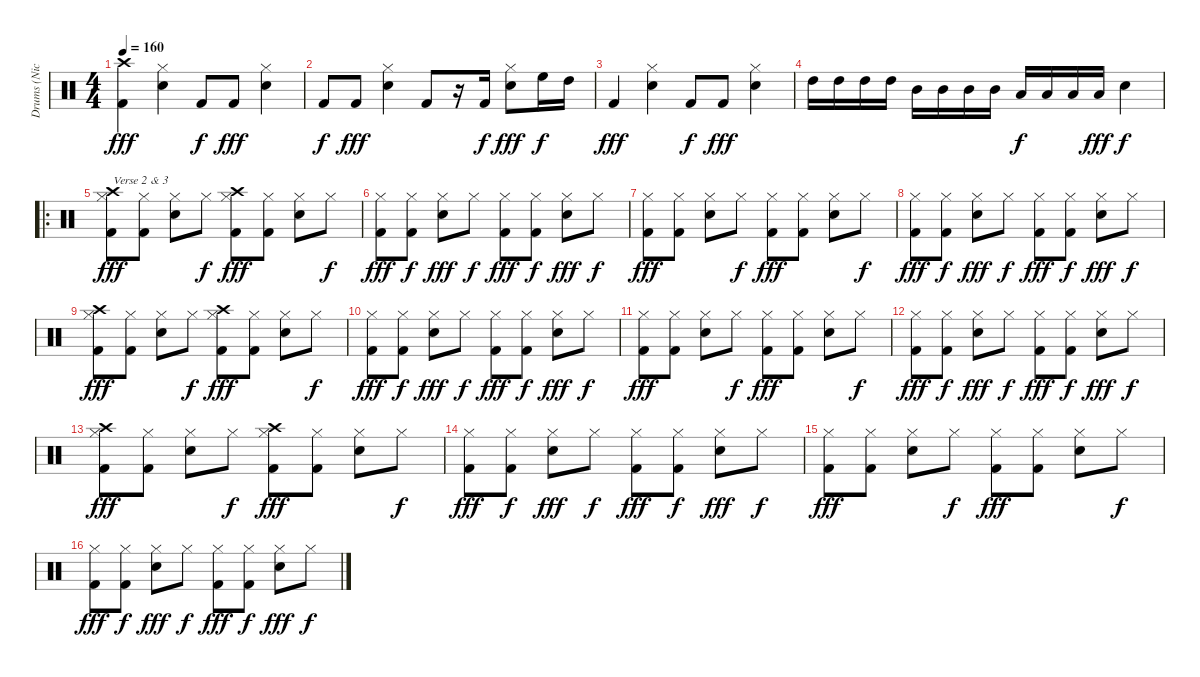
\track ("Drums (Nicko)" "Drums (Nic") {instrument percussion}
\staff {score}
\articulation defaults
\ts (4 4)
\tempo 160
\clef neutral
\ks c
("Kick (hit) 2" "Crash high (hit)").4{dy fff} ("Hi-Hat (closed)" "Snare (hit) 2").4 "Kick (hit) 2".8{dy f} "Kick (hit) 2".8{dy fff} ("Hi-Hat (closed)" "Snare (hit) 2").4 |
"Kick (hit) 2".8{dy f} "Kick (hit) 2".8{dy fff} ("Hi-Hat (closed)" "Snare (hit) 2").4 "Kick (hit) 2".8 r.16 "Kick (hit) 2".16{dy f} ("Hi-Hat (closed)" "Snare (hit) 2").8{dy fff} "High Floor Tom (hit)".16{dy f} "High Tom (hit)".16 |
"Kick (hit) 2".4{dy fff} ("Hi-Hat (closed)" "Snare (hit) 2").4 "Kick (hit) 2".8{dy f} "Kick (hit) 2".8{dy fff} ("Hi-Hat (closed)" "Snare (hit) 2").4 |
"High Tom (hit)".16 "High Tom (hit)".16 "High Tom (hit)".16 "High Tom (hit)".16 "Mid Tom (hit)".16 "Mid Tom (hit)".16 "Mid Tom (hit)".16 "Mid Tom (hit)".16 "Low Tom (hit)".16{dy f} "Low Tom (hit)".16 "Low Tom (hit)".16 "Low Tom (hit)".16{dy fff} "Snare (hit) 2".4{dy f} |
\ro
("Hi-Hat (closed)" "Kick (hit) 2" "Crash high (hit)").8{txt "Verse 2 & 3" dy fff} ("Hi-Hat (closed)" "Kick (hit) 2").8 ("Hi-Hat (closed)" "Snare (hit) 2").8 "Hi-Hat (closed)".8{dy f} ("Hi-Hat (closed)" "Kick (hit) 2" "Crash high (hit)").8{dy fff} ("Hi-Hat (closed)" "Kick (hit) 2").8 ("Hi-Hat (closed)" "Snare (hit) 2").8 "Hi-Hat (closed)".8{dy f} |
("Hi-Hat (closed)" "Kick (hit) 2").8{dy fff} ("Hi-Hat (closed)" "Kick (hit) 2").8{dy f} ("Hi-Hat (closed)" "Snare (hit) 2").8{dy fff} "Hi-Hat (closed)".8{dy f} ("Hi-Hat (closed)" "Kick (hit) 2").8{dy fff} ("Hi-Hat (closed)" "Kick (hit) 2").8{dy f} ("Hi-Hat (closed)" "Snare (hit) 2").8{dy fff} "Hi-Hat (closed)".8{dy f} |
("Hi-Hat (closed)" "Kick (hit) 2").8{dy fff} ("Hi-Hat (closed)" "Kick (hit) 2").8 ("Hi-Hat (closed)" "Snare (hit) 2").8 "Hi-Hat (closed)".8{dy f} ("Hi-Hat (closed)" "Kick (hit) 2").8{dy fff} ("Hi-Hat (closed)" "Kick (hit) 2").8 ("Hi-Hat (closed)" "Snare (hit) 2").8 "Hi-Hat (closed)".8{dy f} |
("Hi-Hat (closed)" "Kick (hit) 2").8{dy fff} ("Hi-Hat (closed)" "Kick (hit) 2").8{dy f} ("Hi-Hat (closed)" "Snare (hit) 2").8{dy fff} "Hi-Hat (closed)".8{dy f} ("Hi-Hat (closed)" "Kick (hit) 2").8{dy fff} ("Hi-Hat (closed)" "Kick (hit) 2").8{dy f} ("Hi-Hat (closed)" "Snare (hit) 2").8{dy fff} "Hi-Hat (closed)".8{dy f} |
("Hi-Hat (closed)" "Kick (hit) 2" "Crash high (hit)").8{dy fff} ("Hi-Hat (closed)" "Kick (hit) 2").8 ("Hi-Hat (closed)" "Snare (hit) 2").8 "Hi-Hat (closed)".8{dy f} ("Hi-Hat (closed)" "Kick (hit) 2" "Crash high (hit)").8{dy fff} ("Hi-Hat (closed)" "Kick (hit) 2").8 ("Hi-Hat (closed)" "Snare (hit) 2").8 "Hi-Hat (closed)".8{dy f} |
("Hi-Hat (closed)" "Kick (hit) 2").8{dy fff} ("Hi-Hat (closed)" "Kick (hit) 2").8{dy f} ("Hi-Hat (closed)" "Snare (hit) 2").8{dy fff} "Hi-Hat (closed)".8{dy f} ("Hi-Hat (closed)" "Kick (hit) 2").8{dy fff} ("Hi-Hat (closed)" "Kick (hit) 2").8{dy f} ("Hi-Hat (closed)" "Snare (hit) 2").8{dy fff} "Hi-Hat (closed)".8{dy f} |
("Hi-Hat (closed)" "Kick (hit) 2").8{dy fff} ("Hi-Hat (closed)" "Kick (hit) 2").8 ("Hi-Hat (closed)" "Snare (hit) 2").8 "Hi-Hat (closed)".8{dy f} ("Hi-Hat (closed)" "Kick (hit) 2").8{dy fff} ("Hi-Hat (closed)" "Kick (hit) 2").8 ("Hi-Hat (closed)" "Snare (hit) 2").8 "Hi-Hat (closed)".8{dy f} |
("Hi-Hat (closed)" "Kick (hit) 2").8{dy fff} ("Hi-Hat (closed)" "Kick (hit) 2").8{dy f} ("Hi-Hat (closed)" "Snare (hit) 2").8{dy fff} "Hi-Hat (closed)".8{dy f} ("Hi-Hat (closed)" "Kick (hit) 2").8{dy fff} ("Hi-Hat (closed)" "Kick (hit) 2").8{dy f} ("Hi-Hat (closed)" "Snare (hit) 2").8{dy fff} "Hi-Hat (closed)".8{dy f} |
("Hi-Hat (closed)" "Kick (hit) 2" "Crash high (hit)").8{dy fff} ("Hi-Hat (closed)" "Kick (hit) 2").8 ("Hi-Hat (closed)" "Snare (hit) 2").8 "Hi-Hat (closed)".8{dy f} ("Hi-Hat (closed)" "Kick (hit) 2" "Crash high (hit)").8{dy fff} ("Hi-Hat (closed)" "Kick (hit) 2").8 ("Hi-Hat (closed)" "Snare (hit) 2").8 "Hi-Hat (closed)".8{dy f} |
("Hi-Hat (closed)" "Kick (hit) 2").8{dy fff} ("Hi-Hat (closed)" "Kick (hit) 2").8{dy f} ("Hi-Hat (closed)" "Snare (hit) 2").8{dy fff} "Hi-Hat (closed)".8{dy f} ("Hi-Hat (closed)" "Kick (hit) 2").8{dy fff} ("Hi-Hat (closed)" "Kick (hit) 2").8{dy f} ("Hi-Hat (closed)" "Snare (hit) 2").8{dy fff} "Hi-Hat (closed)".8{dy f} |
("Hi-Hat (closed)" "Kick (hit) 2").8{dy fff} ("Hi-Hat (closed)" "Kick (hit) 2").8 ("Hi-Hat (closed)" "Snare (hit) 2").8 "Hi-Hat (closed)".8{dy f} ("Hi-Hat (closed)" "Kick (hit) 2").8{dy fff} ("Hi-Hat (closed)" "Kick (hit) 2").8 ("Hi-Hat (closed)" "Snare (hit) 2").8 "Hi-Hat (closed)".8{dy f} |
("Hi-Hat (closed)" "Kick (hit) 2").8{dy fff} ("Hi-Hat (closed)" "Kick (hit) 2").8{dy f} ("Hi-Hat (closed)" "Snare (hit) 2").8{dy fff} "Hi-Hat (closed)".8{dy f} ("Hi-Hat (closed)" "Kick (hit) 2").8{dy fff} ("Hi-Hat (closed)" "Kick (hit) 2").8{dy f} ("Hi-Hat (closed)" "Snare (hit) 2").8{dy fff} "Hi-Hat (closed)".8{dy f}
